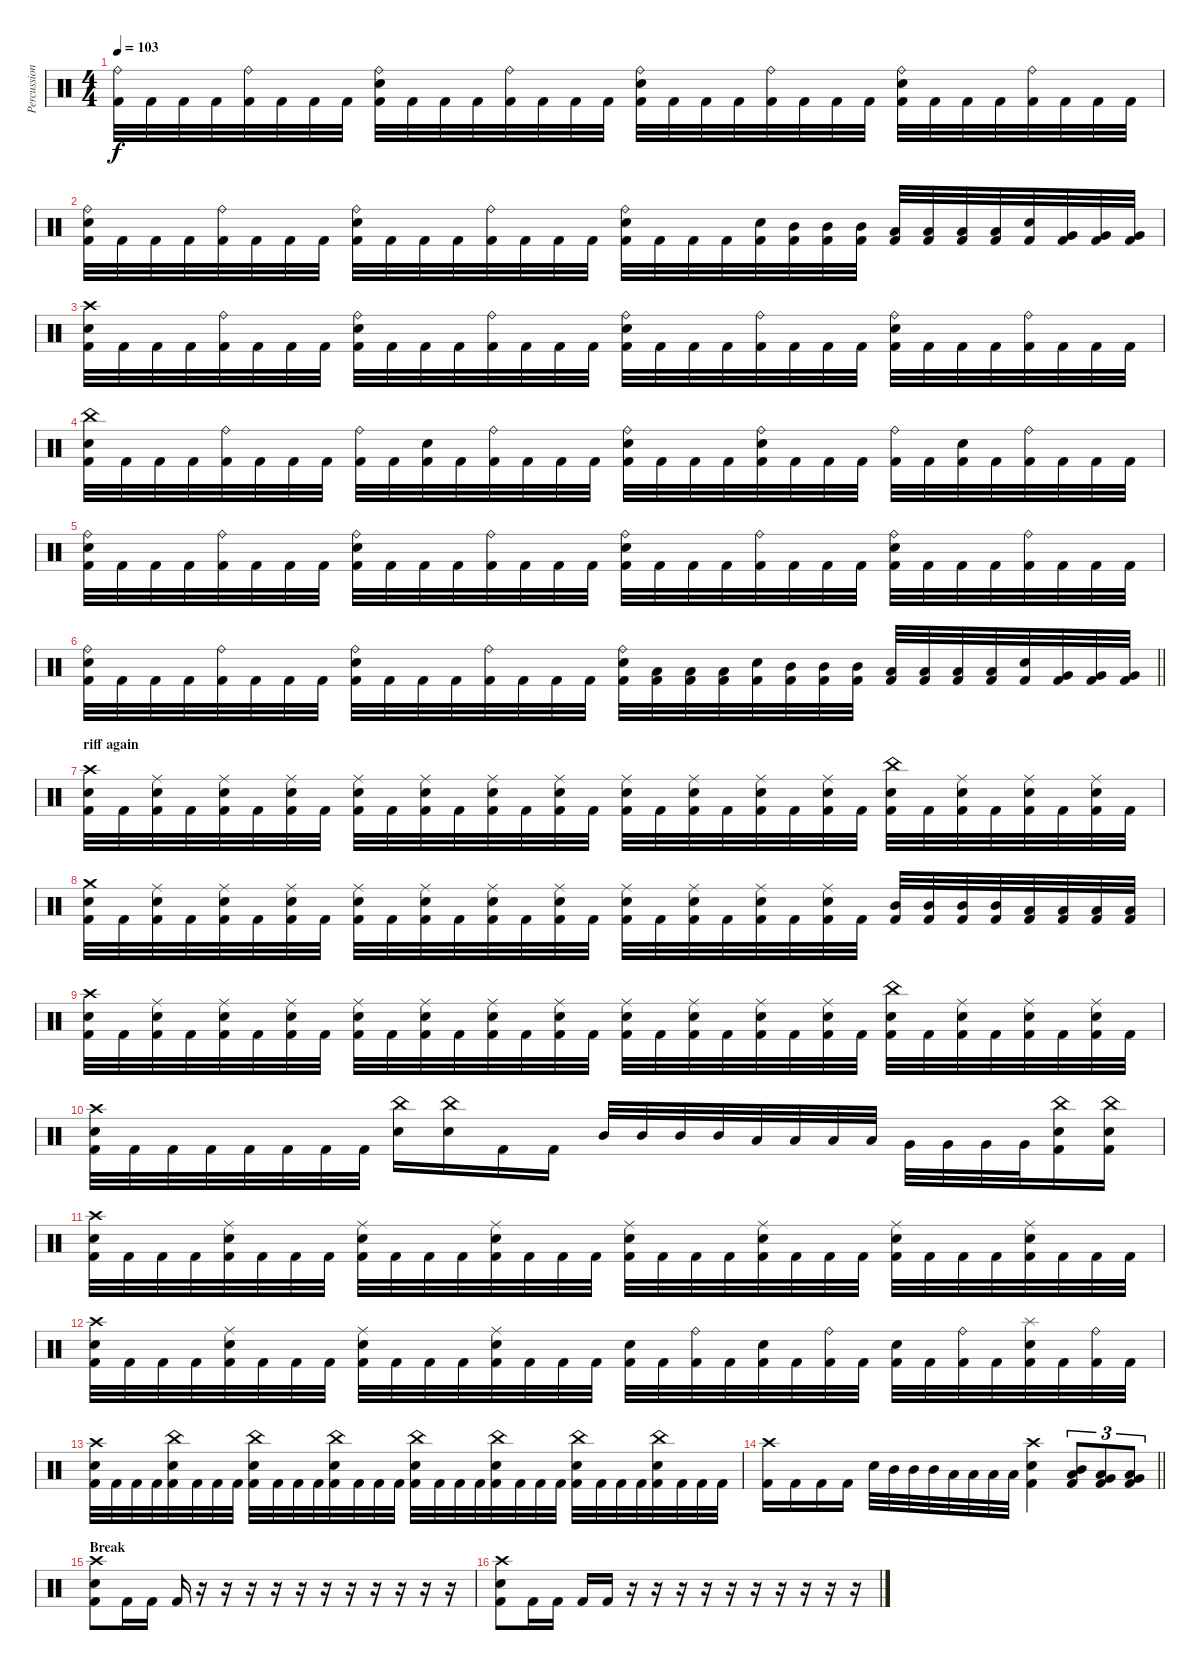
\track ("Percussion" "Percussion") {instrument percussion}
\staff {score}
\articulation defaults
\ts (4 4)
\tempo 103
\clef neutral
\ks c
("Ride (bell)" "Kick (hit) 2").32{dy f} "Kick (hit) 2".32 "Kick (hit) 2".32 "Kick (hit) 2".32 ("Ride (bell)" "Kick (hit) 2").32 "Kick (hit) 2".32 "Kick (hit) 2".32 "Kick (hit) 2".32 ("Ride (bell)" "Electric Snare (hit)" "Kick (hit) 2").32 "Kick (hit) 2".32 "Kick (hit) 2".32 "Kick (hit) 2".32 ("Ride (bell)" "Kick (hit) 2").32 "Kick (hit) 2".32 "Kick (hit) 2".32 "Kick (hit) 2".32 ("Ride (bell)" "Electric Snare (hit)" "Kick (hit) 2").32 "Kick (hit) 2".32 "Kick (hit) 2".32 "Kick (hit) 2".32 ("Ride (bell)" "Kick (hit) 2").32 "Kick (hit) 2".32 "Kick (hit) 2".32 "Kick (hit) 2".32 ("Ride (bell)" "Electric Snare (hit)" "Kick (hit) 2").32 "Kick (hit) 2".32 "Kick (hit) 2".32 "Kick (hit) 2".32 ("Ride (bell)" "Kick (hit) 2").32 "Kick (hit) 2".32 "Kick (hit) 2".32 "Kick (hit) 2".32 |
("Ride (bell)" "Electric Snare (hit)" "Kick (hit) 2").32 "Kick (hit) 2".32 "Kick (hit) 2".32 "Kick (hit) 2".32 ("Ride (bell)" "Kick (hit) 2").32 "Kick (hit) 2".32 "Kick (hit) 2".32 "Kick (hit) 2".32 ("Ride (bell)" "Electric Snare (hit)" "Kick (hit) 2").32 "Kick (hit) 2".32 "Kick (hit) 2".32 "Kick (hit) 2".32 ("Ride (bell)" "Kick (hit) 2").32 "Kick (hit) 2".32 "Kick (hit) 2".32 "Kick (hit) 2".32 ("Ride (bell)" "Electric Snare (hit)" "Kick (hit) 2").32 "Kick (hit) 2".32 "Kick (hit) 2".32 "Kick (hit) 2".32 ("Electric Snare (hit)" "Kick (hit) 2").32 ("Mid Tom (hit)" "Kick (hit) 2").32 ("Mid Tom (hit)" "Kick (hit) 2").32 ("Mid Tom (hit)" "Kick (hit) 2").32 ("Low Tom (hit)" "Kick (hit) 2").32 ("Low Tom (hit)" "Kick (hit) 2").32 ("Low Tom (hit)" "Kick (hit) 2").32 ("Low Tom (hit)" "Kick (hit) 2").32 ("Electric Snare (hit)" "Kick (hit) 2").32 ("Very Low Tom (hit)" "Kick (hit) 2").32 ("Very Low Tom (hit)" "Kick (hit) 2").32 ("Very Low Tom (hit)" "Kick (hit) 2").32 |
("Crash high (hit)" "Electric Snare (hit)" "Kick (hit) 2").32 "Kick (hit) 2".32 "Kick (hit) 2".32 "Kick (hit) 2".32 ("Ride (bell)" "Kick (hit) 2").32 "Kick (hit) 2".32 "Kick (hit) 2".32 "Kick (hit) 2".32 ("Ride (bell)" "Electric Snare (hit)" "Kick (hit) 2").32 "Kick (hit) 2".32 "Kick (hit) 2".32 "Kick (hit) 2".32 ("Ride (bell)" "Kick (hit) 2").32 "Kick (hit) 2".32 "Kick (hit) 2".32 "Kick (hit) 2".32 ("Ride (bell)" "Electric Snare (hit)" "Kick (hit) 2").32 "Kick (hit) 2".32 "Kick (hit) 2".32 "Kick (hit) 2".32 ("Ride (bell)" "Kick (hit) 2").32 "Kick (hit) 2".32 "Kick (hit) 2".32 "Kick (hit) 2".32 ("Ride (bell)" "Electric Snare (hit)" "Kick (hit) 2").32 "Kick (hit) 2".32 "Kick (hit) 2".32 "Kick (hit) 2".32 ("Ride (bell)" "Kick (hit) 2").32 "Kick (hit) 2".32 "Kick (hit) 2".32 "Kick (hit) 2".32 |
("China (hit)" "Electric Snare (hit)" "Kick (hit) 2").32 "Kick (hit) 2".32 "Kick (hit) 2".32 "Kick (hit) 2".32 ("Ride (bell)" "Kick (hit) 2").32 "Kick (hit) 2".32 "Kick (hit) 2".32 "Kick (hit) 2".32 ("Ride (bell)" "Kick (hit) 2").32 "Kick (hit) 2".32 ("Electric Snare (hit)" "Kick (hit) 2").32 "Kick (hit) 2".32 ("Ride (bell)" "Kick (hit) 2").32 "Kick (hit) 2".32 "Kick (hit) 2".32 "Kick (hit) 2".32 ("Ride (bell)" "Electric Snare (hit)" "Kick (hit) 2").32 "Kick (hit) 2".32 "Kick (hit) 2".32 "Kick (hit) 2".32 ("Ride (bell)" "Electric Snare (hit)" "Kick (hit) 2").32 "Kick (hit) 2".32 "Kick (hit) 2".32 "Kick (hit) 2".32 ("Ride (bell)" "Kick (hit) 2").32 "Kick (hit) 2".32 ("Electric Snare (hit)" "Kick (hit) 2").32 "Kick (hit) 2".32 ("Ride (bell)" "Kick (hit) 2").32 "Kick (hit) 2".32 "Kick (hit) 2".32 "Kick (hit) 2".32 |
("Ride (bell)" "Electric Snare (hit)" "Kick (hit) 2").32 "Kick (hit) 2".32 "Kick (hit) 2".32 "Kick (hit) 2".32 ("Ride (bell)" "Kick (hit) 2").32 "Kick (hit) 2".32 "Kick (hit) 2".32 "Kick (hit) 2".32 ("Ride (bell)" "Electric Snare (hit)" "Kick (hit) 2").32 "Kick (hit) 2".32 "Kick (hit) 2".32 "Kick (hit) 2".32 ("Ride (bell)" "Kick (hit) 2").32 "Kick (hit) 2".32 "Kick (hit) 2".32 "Kick (hit) 2".32 ("Ride (bell)" "Electric Snare (hit)" "Kick (hit) 2").32 "Kick (hit) 2".32 "Kick (hit) 2".32 "Kick (hit) 2".32 ("Ride (bell)" "Kick (hit) 2").32 "Kick (hit) 2".32 "Kick (hit) 2".32 "Kick (hit) 2".32 ("Ride (bell)" "Electric Snare (hit)" "Kick (hit) 2").32 "Kick (hit) 2".32 "Kick (hit) 2".32 "Kick (hit) 2".32 ("Ride (bell)" "Kick (hit) 2").32 "Kick (hit) 2".32 "Kick (hit) 2".32 "Kick (hit) 2".32 |
\barLineRight lightlight
("Ride (bell)" "Electric Snare (hit)" "Kick (hit) 2").32 "Kick (hit) 2".32 "Kick (hit) 2".32 "Kick (hit) 2".32 ("Ride (bell)" "Kick (hit) 2").32 "Kick (hit) 2".32 "Kick (hit) 2".32 "Kick (hit) 2".32 ("Ride (bell)" "Electric Snare (hit)" "Kick (hit) 2").32 "Kick (hit) 2".32 "Kick (hit) 2".32 "Kick (hit) 2".32 ("Ride (bell)" "Kick (hit) 2").32 "Kick (hit) 2".32 "Kick (hit) 2".32 "Kick (hit) 2".32 ("Ride (bell)" "Electric Snare (hit)" "Kick (hit) 2").32 ("Low Tom (hit)" "Kick (hit) 2").32 ("Low Tom (hit)" "Kick (hit) 2").32 ("Low Tom (hit)" "Kick (hit) 2").32 ("Electric Snare (hit)" "Kick (hit) 2").32 ("Mid Tom (hit)" "Kick (hit) 2").32 ("Mid Tom (hit)" "Kick (hit) 2").32 ("Mid Tom (hit)" "Kick (hit) 2").32 ("Low Tom (hit)" "Kick (hit) 2").32 ("Low Tom (hit)" "Kick (hit) 2").32 ("Low Tom (hit)" "Kick (hit) 2").32 ("Low Tom (hit)" "Kick (hit) 2").32 ("Electric Snare (hit)" "Kick (hit) 2").32 ("Very Low Tom (hit)" "Kick (hit) 2").32 ("Very Low Tom (hit)" "Kick (hit) 2").32 ("Very Low Tom (hit)" "Kick (hit) 2").32 |
\section ("" "riff again")
("Crash high (hit)" "Electric Snare (hit)" "Kick (hit) 2").32 "Kick (hit) 2".32 ("Ride (middle)" "Electric Snare (hit)" "Kick (hit) 2").32 "Kick (hit) 2".32 ("Ride (middle)" "Electric Snare (hit)" "Kick (hit) 2").32 "Kick (hit) 2".32 ("Ride (middle)" "Electric Snare (hit)" "Kick (hit) 2").32 "Kick (hit) 2".32 ("Ride (middle)" "Electric Snare (hit)" "Kick (hit) 2").32 "Kick (hit) 2".32 ("Ride (middle)" "Electric Snare (hit)" "Kick (hit) 2").32 "Kick (hit) 2".32 ("Ride (middle)" "Electric Snare (hit)" "Kick (hit) 2").32 "Kick (hit) 2".32 ("Ride (middle)" "Electric Snare (hit)" "Kick (hit) 2").32 "Kick (hit) 2".32 ("Ride (middle)" "Electric Snare (hit)" "Kick (hit) 2").32 "Kick (hit) 2".32 ("Ride (middle)" "Electric Snare (hit)" "Kick (hit) 2").32 "Kick (hit) 2".32 ("Ride (middle)" "Electric Snare (hit)" "Kick (hit) 2").32 "Kick (hit) 2".32 ("Ride (middle)" "Electric Snare (hit)" "Kick (hit) 2").32 "Kick (hit) 2".32 ("China (hit)" "Electric Snare (hit)" "Kick (hit) 2").32 "Kick (hit) 2".32 ("Ride (middle)" "Electric Snare (hit)" "Kick (hit) 2").32 "Kick (hit) 2".32 ("Ride (middle)" "Electric Snare (hit)" "Kick (hit) 2").32 "Kick (hit) 2".32 ("Ride (middle)" "Electric Snare (hit)" "Kick (hit) 2").32 "Kick (hit) 2".32 |
("Crash medium (hit)" "Electric Snare (hit)" "Kick (hit) 2").32 "Kick (hit) 2".32 ("Ride (middle)" "Electric Snare (hit)" "Kick (hit) 2").32 "Kick (hit) 2".32 ("Ride (middle)" "Electric Snare (hit)" "Kick (hit) 2").32 "Kick (hit) 2".32 ("Ride (middle)" "Electric Snare (hit)" "Kick (hit) 2").32 "Kick (hit) 2".32 ("Ride (middle)" "Electric Snare (hit)" "Kick (hit) 2").32 "Kick (hit) 2".32 ("Ride (middle)" "Electric Snare (hit)" "Kick (hit) 2").32 "Kick (hit) 2".32 ("Ride (middle)" "Electric Snare (hit)" "Kick (hit) 2").32 "Kick (hit) 2".32 ("Ride (middle)" "Electric Snare (hit)" "Kick (hit) 2").32 "Kick (hit) 2".32 ("Ride (middle)" "Electric Snare (hit)" "Kick (hit) 2").32 "Kick (hit) 2".32 ("Ride (middle)" "Electric Snare (hit)" "Kick (hit) 2").32 "Kick (hit) 2".32 ("Ride (middle)" "Electric Snare (hit)" "Kick (hit) 2").32 "Kick (hit) 2".32 ("Ride (middle)" "Electric Snare (hit)" "Kick (hit) 2").32 "Kick (hit) 2".32 ("Mid Tom (hit)" "Kick (hit) 2").32 ("Mid Tom (hit)" "Kick (hit) 2").32 ("Mid Tom (hit)" "Kick (hit) 2").32 ("Mid Tom (hit)" "Kick (hit) 2").32 ("Low Tom (hit)" "Kick (hit) 2").32 ("Low Tom (hit)" "Kick (hit) 2").32 ("Low Tom (hit)" "Kick (hit) 2").32 ("Low Tom (hit)" "Kick (hit) 2").32 |
("Crash high (hit)" "Electric Snare (hit)" "Kick (hit) 2").32 "Kick (hit) 2".32 ("Ride (middle)" "Electric Snare (hit)" "Kick (hit) 2").32 "Kick (hit) 2".32 ("Ride (middle)" "Electric Snare (hit)" "Kick (hit) 2").32 "Kick (hit) 2".32 ("Ride (middle)" "Electric Snare (hit)" "Kick (hit) 2").32 "Kick (hit) 2".32 ("Ride (middle)" "Electric Snare (hit)" "Kick (hit) 2").32 "Kick (hit) 2".32 ("Ride (middle)" "Electric Snare (hit)" "Kick (hit) 2").32 "Kick (hit) 2".32 ("Ride (middle)" "Electric Snare (hit)" "Kick (hit) 2").32 "Kick (hit) 2".32 ("Ride (middle)" "Electric Snare (hit)" "Kick (hit) 2").32 "Kick (hit) 2".32 ("Ride (middle)" "Electric Snare (hit)" "Kick (hit) 2").32 "Kick (hit) 2".32 ("Ride (middle)" "Electric Snare (hit)" "Kick (hit) 2").32 "Kick (hit) 2".32 ("Ride (middle)" "Electric Snare (hit)" "Kick (hit) 2").32 "Kick (hit) 2".32 ("Ride (middle)" "Electric Snare (hit)" "Kick (hit) 2").32 "Kick (hit) 2".32 ("China (hit)" "Electric Snare (hit)" "Kick (hit) 2").32 "Kick (hit) 2".32 ("Ride (middle)" "Electric Snare (hit)" "Kick (hit) 2").32 "Kick (hit) 2".32 ("Ride (middle)" "Electric Snare (hit)" "Kick (hit) 2").32 "Kick (hit) 2".32 ("Ride (middle)" "Electric Snare (hit)" "Kick (hit) 2").32 "Kick (hit) 2".32 |
("Crash high (hit)" "Electric Snare (hit)" "Kick (hit) 2").32 "Kick (hit) 2".32 "Kick (hit) 2".32 "Kick (hit) 2".32 "Kick (hit) 2".32 "Kick (hit) 2".32 "Kick (hit) 2".32 "Kick (hit) 2".32 ("China (hit)" "Electric Snare (hit)").16 ("China (hit)" "Electric Snare (hit)").16 "Kick (hit) 2".16 "Kick (hit) 2".16 "Mid Tom (hit)".32 "Mid Tom (hit)".32 "Mid Tom (hit)".32 "Mid Tom (hit)".32 "Low Tom (hit)".32 "Low Tom (hit)".32 "Low Tom (hit)".32 "Low Tom (hit)".32 "Very Low Tom (hit)".32 "Very Low Tom (hit)".32 "Very Low Tom (hit)".32 "Very Low Tom (hit)".32 ("China (hit)" "Electric Snare (hit)" "Kick (hit) 2").16 ("China (hit)" "Electric Snare (hit)" "Kick (hit) 2").16 |
("Crash high (hit)" "Electric Snare (hit)" "Kick (hit) 2").32 "Kick (hit) 2".32 "Kick (hit) 2".32 "Kick (hit) 2".32 ("Ride (middle)" "Electric Snare (hit)" "Kick (hit) 2").32 "Kick (hit) 2".32 "Kick (hit) 2".32 "Kick (hit) 2".32 ("Ride (middle)" "Electric Snare (hit)" "Kick (hit) 2").32 "Kick (hit) 2".32 "Kick (hit) 2".32 "Kick (hit) 2".32 ("Ride (middle)" "Electric Snare (hit)" "Kick (hit) 2").32 "Kick (hit) 2".32 "Kick (hit) 2".32 "Kick (hit) 2".32 ("Ride (middle)" "Electric Snare (hit)" "Kick (hit) 2").32 "Kick (hit) 2".32 "Kick (hit) 2".32 "Kick (hit) 2".32 ("Ride (middle)" "Electric Snare (hit)" "Kick (hit) 2").32 "Kick (hit) 2".32 "Kick (hit) 2".32 "Kick (hit) 2".32 ("Ride (middle)" "Electric Snare (hit)" "Kick (hit) 2").32 "Kick (hit) 2".32 "Kick (hit) 2".32 "Kick (hit) 2".32 ("Ride (middle)" "Electric Snare (hit)" "Kick (hit) 2").32 "Kick (hit) 2".32 "Kick (hit) 2".32 "Kick (hit) 2".32 |
("Crash high (hit)" "Electric Snare (hit)" "Kick (hit) 2").32 "Kick (hit) 2".32 "Kick (hit) 2".32 "Kick (hit) 2".32 ("Ride (middle)" "Electric Snare (hit)" "Kick (hit) 2").32 "Kick (hit) 2".32 "Kick (hit) 2".32 "Kick (hit) 2".32 ("Ride (middle)" "Electric Snare (hit)" "Kick (hit) 2").32 "Kick (hit) 2".32 "Kick (hit) 2".32 "Kick (hit) 2".32 ("Ride (middle)" "Electric Snare (hit)" "Kick (hit) 2").32 "Kick (hit) 2".32 "Kick (hit) 2".32 "Kick (hit) 2".32 ("Electric Snare (hit)" "Kick (hit) 2").32 "Kick (hit) 2".32 ("Ride (bell)" "Kick (hit) 2").32 "Kick (hit) 2".32 ("Electric Snare (hit)" "Kick (hit) 2").32 "Kick (hit) 2".32 ("Ride (bell)" "Kick (hit) 2").32 "Kick (hit) 2".32 ("Electric Snare (hit)" "Kick (hit) 2").32 "Kick (hit) 2".32 ("Ride (bell)" "Kick (hit) 2").32 "Kick (hit) 2".32 ("Splash (hit)" "Electric Snare (hit)" "Kick (hit) 2").32 "Kick (hit) 2".32 ("Ride (bell)" "Kick (hit) 2").32 "Kick (hit) 2".32 |
("Crash high (hit)" "Electric Snare (hit)" "Kick (hit) 2").32 "Kick (hit) 2".32 "Kick (hit) 2".32 "Kick (hit) 2".32 ("China (hit)" "Electric Snare (hit)" "Kick (hit) 2").32 "Kick (hit) 2".32 "Kick (hit) 2".32 "Kick (hit) 2".32 ("China (hit)" "Electric Snare (hit)" "Kick (hit) 2").32 "Kick (hit) 2".32 "Kick (hit) 2".32 "Kick (hit) 2".32 ("China (hit)" "Electric Snare (hit)" "Kick (hit) 2").32 "Kick (hit) 2".32 "Kick (hit) 2".32 "Kick (hit) 2".32 ("China (hit)" "Electric Snare (hit)" "Kick (hit) 2").32 "Kick (hit) 2".32 "Kick (hit) 2".32 "Kick (hit) 2".32 ("China (hit)" "Electric Snare (hit)" "Kick (hit) 2").32 "Kick (hit) 2".32 "Kick (hit) 2".32 "Kick (hit) 2".32 ("China (hit)" "Electric Snare (hit)" "Kick (hit) 2").32 "Kick (hit) 2".32 "Kick (hit) 2".32 "Kick (hit) 2".32 ("China (hit)" "Electric Snare (hit)" "Kick (hit) 2").32 "Kick (hit) 2".32 "Kick (hit) 2".32 "Kick (hit) 2".32 |
\barLineRight lightlight
("Crash high (hit)" "Kick (hit) 2").16 "Kick (hit) 2".16 "Kick (hit) 2".16 "Kick (hit) 2".16 "Electric Snare (hit)".32 "Mid Tom (hit)".32 "Mid Tom (hit)".32 "Mid Tom (hit)".32 "Low Tom (hit)".32 "Low Tom (hit)".32 "Low Tom (hit)".32 "Low Tom (hit)".32 ("Crash high (hit)" "Electric Snare (hit)" "Kick (hit) 2").4 ("Mid Tom (hit)" "Low Tom (hit)" "Kick (hit) 2").8{tu (3 2)} ("Low Tom (hit)" "Very Low Tom (hit)" "Kick (hit) 2").8{tu (3 2)} ("Very Low Tom (hit)" "Low Floor Tom (hit)" "Kick (hit) 2").8{tu (3 2)} |
\section ("" "Break")
("Crash high (hit)" "Electric Snare (hit)" "Kick (hit) 2").8 "Kick (hit) 2".16 "Kick (hit) 2".16 "Kick (hit) 2".16 r.16 r.16 r.16 r.16 r.16 r.16 r.16 r.16 r.16 r.16 r.16 |
("Crash high (hit)" "Electric Snare (hit)" "Kick (hit) 2").8 "Kick (hit) 2".16 "Kick (hit) 2".16 "Kick (hit) 2".16 "Kick (hit) 2".16 r.16 r.16 r.16 r.16 r.16 r.16 r.16 r.16 r.16 r.16
